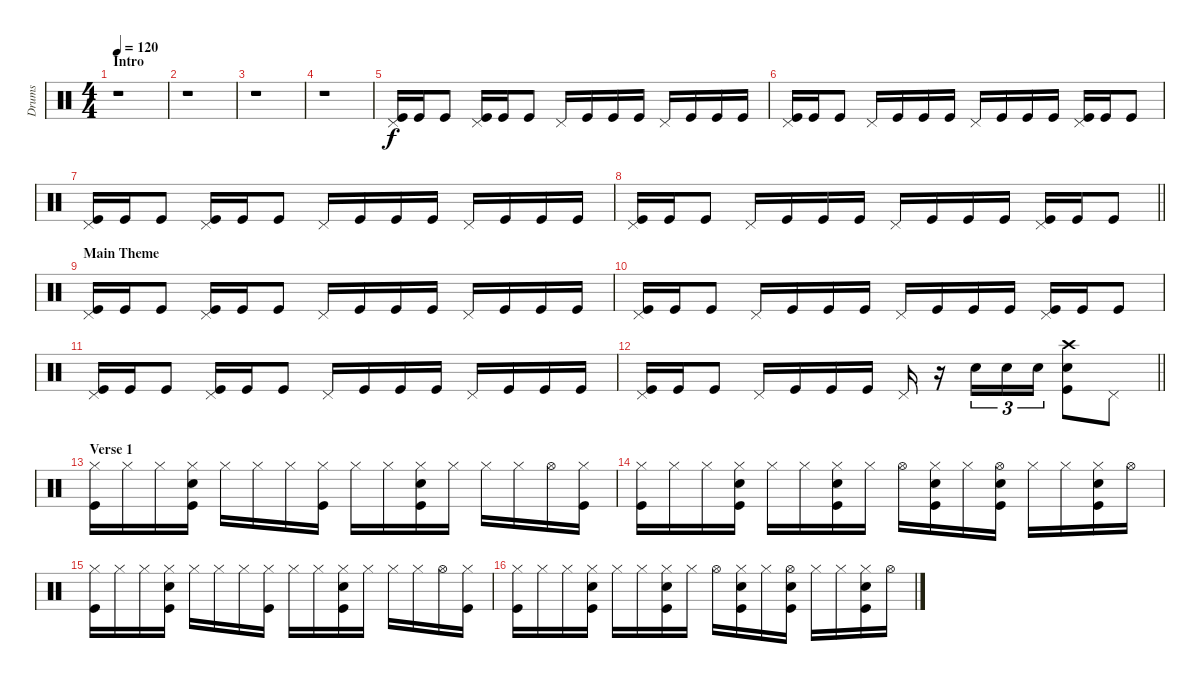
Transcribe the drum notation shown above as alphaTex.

\track ("Drums" "Drums") {instrument percussion}
\staff {score}
\articulation defaults
\ts (4 4)
\section ("" "Intro")
\tempo 120
\clef neutral
\ks c
r.1{dy f} |
r.1 |
r.1 |
r.1 |
("Pedal Hi-Hat (hit)" "Kick (hit)").16 "Kick (hit)".16 "Kick (hit)".8 ("Pedal Hi-Hat (hit)" "Kick (hit)").16 "Kick (hit)".16 "Kick (hit)".8 "Pedal Hi-Hat (hit)".16 "Kick (hit)".16 "Kick (hit)".16 "Kick (hit)".16 "Pedal Hi-Hat (hit)".16 "Kick (hit)".16 "Kick (hit)".16 "Kick (hit)".16 |
("Pedal Hi-Hat (hit)" "Kick (hit)").16 "Kick (hit)".16 "Kick (hit)".8 "Pedal Hi-Hat (hit)".16 "Kick (hit)".16 "Kick (hit)".16 "Kick (hit)".16 "Pedal Hi-Hat (hit)".16 "Kick (hit)".16 "Kick (hit)".16 "Kick (hit)".16 ("Pedal Hi-Hat (hit)" "Kick (hit)").16 "Kick (hit)".16 "Kick (hit)".8 |
("Pedal Hi-Hat (hit)" "Kick (hit)").16 "Kick (hit)".16 "Kick (hit)".8 ("Pedal Hi-Hat (hit)" "Kick (hit)").16 "Kick (hit)".16 "Kick (hit)".8 "Pedal Hi-Hat (hit)".16 "Kick (hit)".16 "Kick (hit)".16 "Kick (hit)".16 "Pedal Hi-Hat (hit)".16 "Kick (hit)".16 "Kick (hit)".16 "Kick (hit)".16 |
\barLineRight lightlight
("Pedal Hi-Hat (hit)" "Kick (hit)").16 "Kick (hit)".16 "Kick (hit)".8 "Pedal Hi-Hat (hit)".16 "Kick (hit)".16 "Kick (hit)".16 "Kick (hit)".16 "Pedal Hi-Hat (hit)".16 "Kick (hit)".16 "Kick (hit)".16 "Kick (hit)".16 ("Pedal Hi-Hat (hit)" "Kick (hit)").16 "Kick (hit)".16 "Kick (hit)".8 |
\section ("" "Main Theme")
("Pedal Hi-Hat (hit)" "Kick (hit)").16 "Kick (hit)".16 "Kick (hit)".8 ("Pedal Hi-Hat (hit)" "Kick (hit)").16 "Kick (hit)".16 "Kick (hit)".8 "Pedal Hi-Hat (hit)".16 "Kick (hit)".16 "Kick (hit)".16 "Kick (hit)".16 "Pedal Hi-Hat (hit)".16 "Kick (hit)".16 "Kick (hit)".16 "Kick (hit)".16 |
("Pedal Hi-Hat (hit)" "Kick (hit)").16 "Kick (hit)".16 "Kick (hit)".8 "Pedal Hi-Hat (hit)".16 "Kick (hit)".16 "Kick (hit)".16 "Kick (hit)".16 "Pedal Hi-Hat (hit)".16 "Kick (hit)".16 "Kick (hit)".16 "Kick (hit)".16 ("Pedal Hi-Hat (hit)" "Kick (hit)").16 "Kick (hit)".16 "Kick (hit)".8 |
("Pedal Hi-Hat (hit)" "Kick (hit)").16 "Kick (hit)".16 "Kick (hit)".8 ("Pedal Hi-Hat (hit)" "Kick (hit)").16 "Kick (hit)".16 "Kick (hit)".8 "Pedal Hi-Hat (hit)".16 "Kick (hit)".16 "Kick (hit)".16 "Kick (hit)".16 "Pedal Hi-Hat (hit)".16 "Kick (hit)".16 "Kick (hit)".16 "Kick (hit)".16 |
\barLineRight lightlight
("Pedal Hi-Hat (hit)" "Kick (hit)").16 "Kick (hit)".16 "Kick (hit)".8 "Pedal Hi-Hat (hit)".16 "Kick (hit)".16 "Kick (hit)".16 "Kick (hit)".16 "Pedal Hi-Hat (hit)".16 r.16 "Electric Snare (hit)".16{tu (3 2)} "Electric Snare (hit)".16{tu (3 2)} "Electric Snare (hit)".16{tu (3 2)} ("Crash high (hit)" "Electric Snare (hit)" "Kick (hit)").8 "Pedal Hi-Hat (hit)".8 |
\section ("" "Verse 1")
("Hi-Hat (closed)" "Kick (hit)").16 "Hi-Hat (closed)".16 "Hi-Hat (closed)".16 ("Hi-Hat (closed)" "Electric Snare (hit)" "Kick (hit)").16 "Hi-Hat (closed)".16 "Hi-Hat (closed)".16 "Hi-Hat (closed)".16 ("Hi-Hat (closed)" "Kick (hit)").16 "Hi-Hat (closed)".16 "Hi-Hat (closed)".16 ("Hi-Hat (closed)" "Electric Snare (hit)" "Kick (hit)").16 "Hi-Hat (closed)".16 "Hi-Hat (closed)".16 "Hi-Hat (closed)".16 "Hi-Hat (open)".16 ("Hi-Hat (closed)" "Kick (hit)").16 |
("Hi-Hat (closed)" "Kick (hit)").16 "Hi-Hat (closed)".16 "Hi-Hat (closed)".16 ("Hi-Hat (closed)" "Electric Snare (hit)" "Kick (hit)").16 "Hi-Hat (closed)".16 "Hi-Hat (closed)".16 ("Hi-Hat (closed)" "Electric Snare (hit)" "Kick (hit)").16 "Hi-Hat (closed)".16 "Hi-Hat (open)".16 ("Hi-Hat (closed)" "Electric Snare (hit)" "Kick (hit)").16 "Hi-Hat (closed)".16 ("Hi-Hat (open)" "Electric Snare (hit)" "Kick (hit)").16 "Hi-Hat (closed)".16 "Hi-Hat (closed)".16 ("Hi-Hat (closed)" "Electric Snare (hit)" "Kick (hit)").16 "Hi-Hat (open)".16 |
("Hi-Hat (closed)" "Kick (hit)").16 "Hi-Hat (closed)".16 "Hi-Hat (closed)".16 ("Hi-Hat (closed)" "Electric Snare (hit)" "Kick (hit)").16 "Hi-Hat (closed)".16 "Hi-Hat (closed)".16 "Hi-Hat (closed)".16 ("Hi-Hat (closed)" "Kick (hit)").16 "Hi-Hat (closed)".16 "Hi-Hat (closed)".16 ("Hi-Hat (closed)" "Electric Snare (hit)" "Kick (hit)").16 "Hi-Hat (closed)".16 "Hi-Hat (closed)".16 "Hi-Hat (closed)".16 "Hi-Hat (open)".16 ("Hi-Hat (closed)" "Kick (hit)").16 |
("Hi-Hat (closed)" "Kick (hit)").16 "Hi-Hat (closed)".16 "Hi-Hat (closed)".16 ("Hi-Hat (closed)" "Electric Snare (hit)" "Kick (hit)").16 "Hi-Hat (closed)".16 "Hi-Hat (closed)".16 ("Hi-Hat (closed)" "Electric Snare (hit)" "Kick (hit)").16 "Hi-Hat (closed)".16 "Hi-Hat (open)".16 ("Hi-Hat (closed)" "Electric Snare (hit)" "Kick (hit)").16 "Hi-Hat (closed)".16 ("Hi-Hat (open)" "Electric Snare (hit)" "Kick (hit)").16 "Hi-Hat (closed)".16 "Hi-Hat (closed)".16 ("Hi-Hat (closed)" "Electric Snare (hit)" "Kick (hit)").16 "Hi-Hat (open)".16
